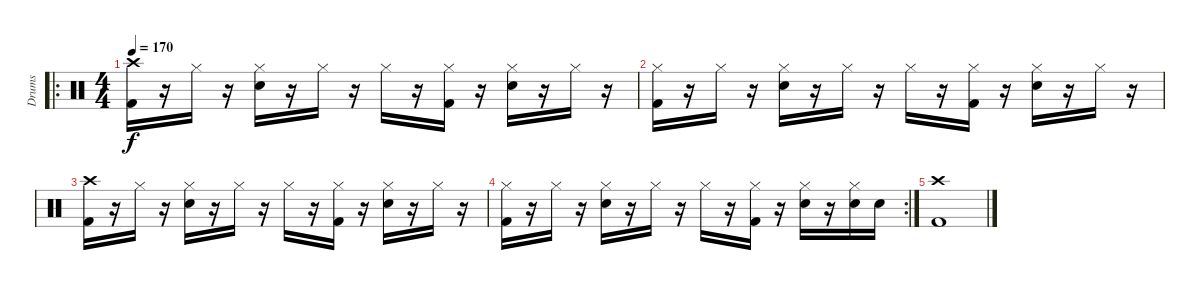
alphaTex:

\track ("Drums" "Drums") {instrument percussion}
\staff {score}
\articulation defaults
\ro
\ts (4 4)
\tempo 170
\clef neutral
\ks c
("Kick (hit) 2" "Crash high (hit)").16{dy f} r.16 "Hi-Hat (closed)".16 r.16 ("Hi-Hat (closed)" "Snare (hit) 2").16 r.16 "Hi-Hat (closed)".16 r.16 "Hi-Hat (closed)".16 r.16 ("Hi-Hat (closed)" "Kick (hit) 2").16 r.16 ("Hi-Hat (closed)" "Snare (hit) 2").16 r.16 "Hi-Hat (closed)".16 r.16 |
("Kick (hit) 2" "Hi-Hat (closed)").16 r.16 "Hi-Hat (closed)".16 r.16 ("Hi-Hat (closed)" "Snare (hit) 2").16 r.16 "Hi-Hat (closed)".16 r.16 "Hi-Hat (closed)".16 r.16 ("Hi-Hat (closed)" "Kick (hit) 2").16 r.16 ("Hi-Hat (closed)" "Snare (hit) 2").16 r.16 "Hi-Hat (closed)".16 r.16 |
("Kick (hit) 2" "Crash high (hit)").16 r.16 "Hi-Hat (closed)".16 r.16 ("Hi-Hat (closed)" "Snare (hit) 2").16 r.16 "Hi-Hat (closed)".16 r.16 "Hi-Hat (closed)".16 r.16 ("Hi-Hat (closed)" "Kick (hit) 2").16 r.16 ("Hi-Hat (closed)" "Snare (hit) 2").16 r.16 "Hi-Hat (closed)".16 r.16 |
\rc 2
("Kick (hit) 2" "Hi-Hat (closed)").16 r.16 "Hi-Hat (closed)".16 r.16 ("Hi-Hat (closed)" "Snare (hit) 2").16 r.16 "Hi-Hat (closed)".16 r.16 "Hi-Hat (closed)".16 r.16 ("Hi-Hat (closed)" "Kick (hit) 2").16 r.16 ("Hi-Hat (closed)" "Snare (hit) 2").16 r.16 ("Hi-Hat (closed)" "Snare (hit) 2").16 "Snare (hit) 2".16 |
("Kick (hit) 2" "Crash high (hit)").1
